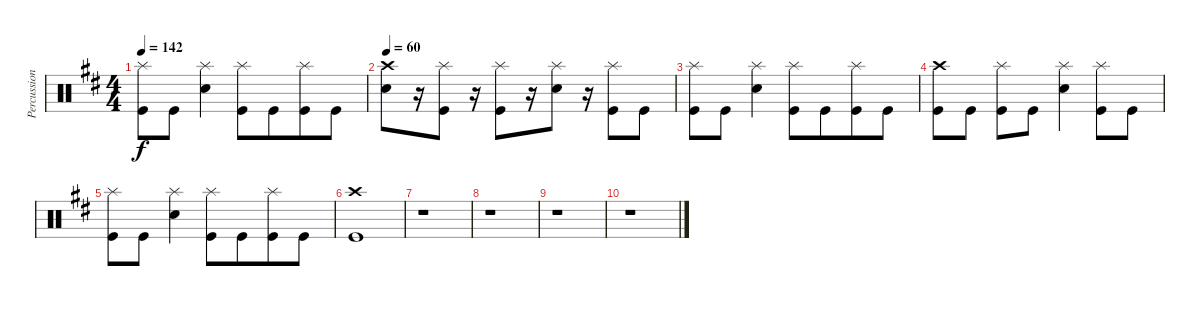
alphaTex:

\track ("Percussion" "Percussion") {instrument percussion}
\staff {score}
\articulation defaults
\ts (4 4)
\tempo 142
\clef neutral
\ks d
("Kick (hit)" "Splash (hit)").8{dy f} "Kick (hit)".8 ("Snare (hit) 2" "Splash (hit)").4 ("Kick (hit)" "Splash (hit)").8 "Kick (hit)".8{beam merge} ("Kick (hit)" "Splash (hit)").8 "Kick (hit)".8 |
\tempo 60
("Snare (hit) 2" "Crash high (hit)").8{beam merge} r.16 ("Kick (hit)" "Splash (hit)").8 r.16{beam merge} ("Kick (hit)" "Splash (hit)").8{beam merge} r.16 ("Snare (hit) 2" "Splash (hit)").8 r.16 ("Kick (hit)" "Splash (hit)").8 "Kick (hit)".8 |
("Kick (hit)" "Splash (hit)").8 "Kick (hit)".8 ("Snare (hit) 2" "Splash (hit)").4 ("Kick (hit)" "Splash (hit)").8 "Kick (hit)".8{beam merge} ("Kick (hit)" "Splash (hit)").8 "Kick (hit)".8 |
("Kick (hit)" "Crash high (hit)").8 "Kick (hit)".8 ("Kick (hit)" "Splash (hit)").8 "Kick (hit)".8{beam merge} ("Snare (hit) 2" "Splash (hit)").4 ("Kick (hit)" "Splash (hit)").8 "Kick (hit)".8 |
("Kick (hit)" "Splash (hit)").8 "Kick (hit)".8 ("Snare (hit) 2" "Splash (hit)").4 ("Kick (hit)" "Splash (hit)").8 "Kick (hit)".8{beam merge} ("Kick (hit)" "Splash (hit)").8 "Kick (hit)".8 |
("Kick (hit)" "Crash high (hit)").1 |
r.1 |
r.1 |
r.1 |
r.1
